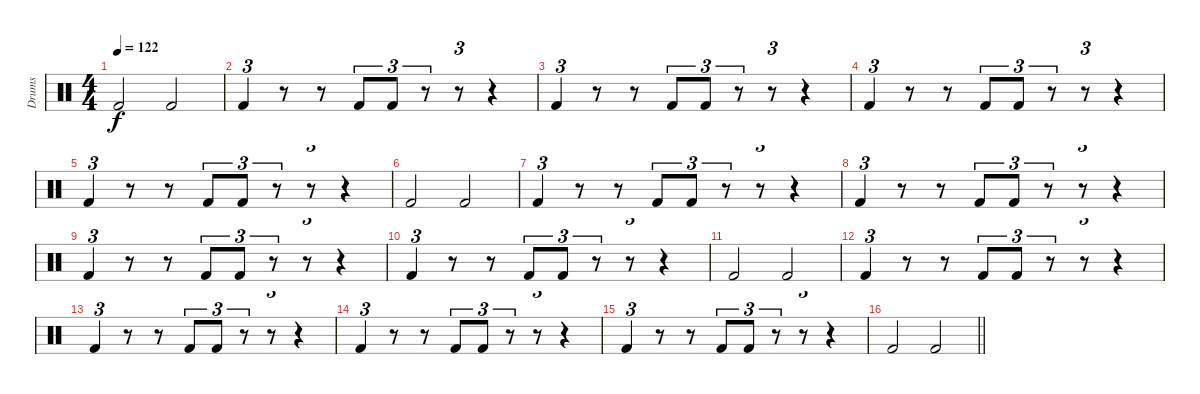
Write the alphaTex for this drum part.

\track ("Drums" "Drums") {instrument percussion}
\staff {score}
\articulation defaults
\ts (4 4)
\tempo 122
\clef neutral
\ks c "Kick (hit) 2".2{dy f} "Kick (hit) 2".2
|
"Kick (hit) 2".4{tu (3 2)} r.8 r.8 "Kick (hit) 2".8{tu (3 2)} "Kick (hit) 2".8{tu (3 2)} r.8{tu (3 2)} r.8{tu (3 2)} r.4 |
"Kick (hit) 2".4{tu (3 2)} r.8 r.8 "Kick (hit) 2".8{tu (3 2)} "Kick (hit) 2".8{tu (3 2)} r.8{tu (3 2)} r.8{tu (3 2)} r.4 |
"Kick (hit) 2".4{tu (3 2)} r.8 r.8 "Kick (hit) 2".8{tu (3 2)} "Kick (hit) 2".8{tu (3 2)} r.8{tu (3 2)} r.8{tu (3 2)} r.4 |
"Kick (hit) 2".4{tu (3 2)} r.8 r.8 "Kick (hit) 2".8{tu (3 2)} "Kick (hit) 2".8{tu (3 2)} r.8{tu (3 2)} r.8{tu (3 2)} r.4 |
"Kick (hit) 2".2 "Kick (hit) 2".2 |
"Kick (hit) 2".4{tu (3 2)} r.8 r.8 "Kick (hit) 2".8{tu (3 2)} "Kick (hit) 2".8{tu (3 2)} r.8{tu (3 2)} r.8{tu (3 2)} r.4 |
"Kick (hit) 2".4{tu (3 2)} r.8 r.8 "Kick (hit) 2".8{tu (3 2)} "Kick (hit) 2".8{tu (3 2)} r.8{tu (3 2)} r.8{tu (3 2)} r.4 |
"Kick (hit) 2".4{tu (3 2)} r.8 r.8 "Kick (hit) 2".8{tu (3 2)} "Kick (hit) 2".8{tu (3 2)} r.8{tu (3 2)} r.8{tu (3 2)} r.4 |
"Kick (hit) 2".4{tu (3 2)} r.8 r.8 "Kick (hit) 2".8{tu (3 2)} "Kick (hit) 2".8{tu (3 2)} r.8{tu (3 2)} r.8{tu (3 2)} r.4 |
"Kick (hit) 2".2 "Kick (hit) 2".2 |
"Kick (hit) 2".4{tu (3 2)} r.8 r.8 "Kick (hit) 2".8{tu (3 2)} "Kick (hit) 2".8{tu (3 2)} r.8{tu (3 2)} r.8{tu (3 2)} r.4 |
"Kick (hit) 2".4{tu (3 2)} r.8 r.8 "Kick (hit) 2".8{tu (3 2)} "Kick (hit) 2".8{tu (3 2)} r.8{tu (3 2)} r.8{tu (3 2)} r.4 |
"Kick (hit) 2".4{tu (3 2)} r.8 r.8 "Kick (hit) 2".8{tu (3 2)} "Kick (hit) 2".8{tu (3 2)} r.8{tu (3 2)} r.8{tu (3 2)} r.4 |
"Kick (hit) 2".4{tu (3 2)} r.8 r.8 "Kick (hit) 2".8{tu (3 2)} "Kick (hit) 2".8{tu (3 2)} r.8{tu (3 2)} r.8{tu (3 2)} r.4 |
\barLineRight lightlight "Kick (hit) 2".2 "Kick (hit) 2".2
